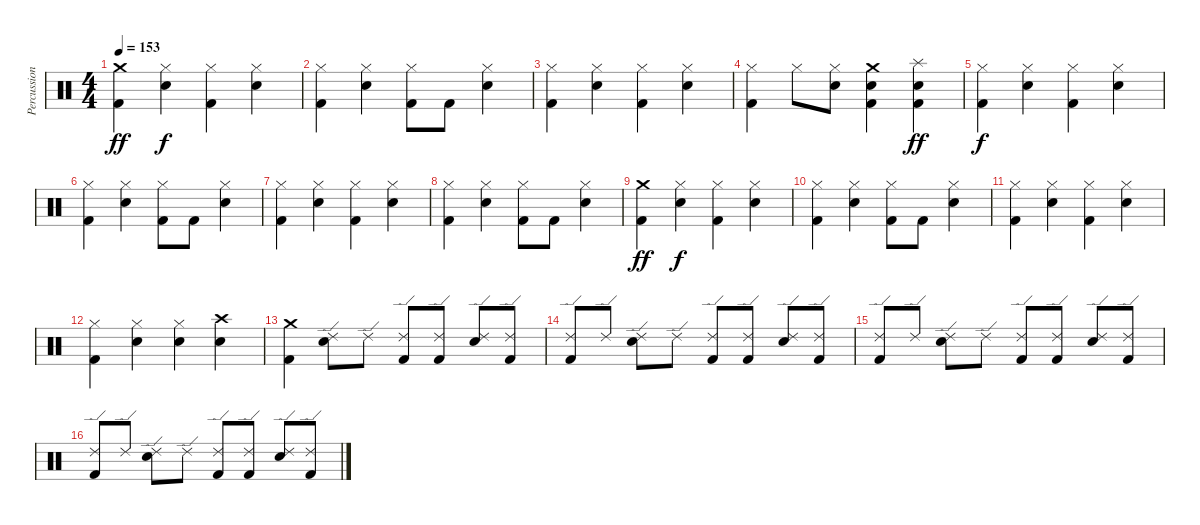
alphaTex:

\track ("Percussion" "Percussion") {instrument percussion}
\staff {score}
\articulation defaults
\ts (4 4)
\tempo 153
\clef neutral
\ks c
("Crash medium (hit)" "Kick (hit) 2").4{dy ff} ("Hi-Hat (closed)" "Electric Snare (hit)").4{dy f} ("Hi-Hat (closed)" "Kick (hit) 2").4 ("Hi-Hat (closed)" "Electric Snare (hit)").4 |
("Hi-Hat (closed)" "Kick (hit) 2").4 ("Hi-Hat (closed)" "Electric Snare (hit)").4 ("Hi-Hat (closed)" "Kick (hit) 2").8 "Kick (hit) 2".8 ("Hi-Hat (closed)" "Electric Snare (hit)").4 |
("Hi-Hat (closed)" "Kick (hit) 2").4 ("Hi-Hat (closed)" "Electric Snare (hit)").4 ("Hi-Hat (closed)" "Kick (hit) 2").4 ("Hi-Hat (closed)" "Electric Snare (hit)").4 |
("Hi-Hat (closed)" "Kick (hit) 2").4 "Hi-Hat (closed)".8 ("Hi-Hat (closed)" "Electric Snare (hit)").8 ("Crash medium (hit)" "Snare (hit) 2" "Kick (hit) 2").4 ("Splash (hit)" "Electric Snare (hit)" "Kick (hit) 2").4{dy ff} |
("Hi-Hat (closed)" "Kick (hit) 2").4{dy f} ("Hi-Hat (closed)" "Electric Snare (hit)").4 ("Hi-Hat (closed)" "Kick (hit) 2").4 ("Hi-Hat (closed)" "Electric Snare (hit)").4 |
("Hi-Hat (closed)" "Kick (hit) 2").4 ("Hi-Hat (closed)" "Electric Snare (hit)").4 ("Hi-Hat (closed)" "Kick (hit) 2").8 "Kick (hit) 2".8 ("Hi-Hat (closed)" "Electric Snare (hit)").4 |
("Hi-Hat (closed)" "Kick (hit) 2").4 ("Hi-Hat (closed)" "Electric Snare (hit)").4 ("Hi-Hat (closed)" "Kick (hit) 2").4 ("Hi-Hat (closed)" "Electric Snare (hit)").4 |
("Hi-Hat (closed)" "Kick (hit) 2").4 ("Hi-Hat (closed)" "Electric Snare (hit)").4 ("Hi-Hat (closed)" "Kick (hit) 2").8 "Kick (hit) 2".8 ("Hi-Hat (closed)" "Electric Snare (hit)").4 |
("Crash medium (hit)" "Kick (hit) 2").4{dy ff} ("Hi-Hat (closed)" "Electric Snare (hit)").4{dy f} ("Hi-Hat (closed)" "Kick (hit) 2").4 ("Hi-Hat (closed)" "Electric Snare (hit)").4 |
("Hi-Hat (closed)" "Kick (hit) 2").4 ("Hi-Hat (closed)" "Electric Snare (hit)").4 ("Hi-Hat (closed)" "Kick (hit) 2").8 "Kick (hit) 2".8 ("Hi-Hat (closed)" "Electric Snare (hit)").4 |
("Hi-Hat (closed)" "Kick (hit) 2").4 ("Hi-Hat (closed)" "Electric Snare (hit)").4 ("Hi-Hat (closed)" "Kick (hit) 2").4 ("Hi-Hat (closed)" "Electric Snare (hit)").4 |
("Hi-Hat (closed)" "Kick (hit) 2").4 ("Hi-Hat (closed)" "Electric Snare (hit)").4 ("Hi-Hat (closed)" "Snare (hit) 2").4 ("Crash high (hit)" "Electric Snare (hit)").4 |
("Crash medium (hit)" "Kick (hit) 2").4 ("Ride (edge) 2" "Electric Snare (hit)").8 "Ride (edge) 2".8 ("Ride (edge) 2" "Kick (hit) 2").8 ("Ride (edge) 2" "Kick (hit) 2").8 ("Ride (edge) 2" "Electric Snare (hit)").8 ("Ride (edge) 2" "Kick (hit) 2").8 |
("Ride (edge) 2" "Kick (hit) 2").8 "Ride (edge) 2".8 ("Ride (edge) 2" "Electric Snare (hit)").8 "Ride (edge) 2".8 ("Ride (edge) 2" "Kick (hit) 2").8 ("Ride (edge) 2" "Kick (hit) 2").8 ("Ride (edge) 2" "Electric Snare (hit)").8 ("Ride (edge) 2" "Kick (hit) 2").8 |
("Ride (edge) 2" "Kick (hit) 2").8 "Ride (edge) 2".8 ("Ride (edge) 2" "Electric Snare (hit)").8 "Ride (edge) 2".8 ("Ride (edge) 2" "Kick (hit) 2").8 ("Ride (edge) 2" "Kick (hit) 2").8 ("Ride (edge) 2" "Electric Snare (hit)").8 ("Ride (edge) 2" "Kick (hit) 2").8 |
("Ride (edge) 2" "Kick (hit) 2").8 "Ride (edge) 2".8 ("Ride (edge) 2" "Electric Snare (hit)").8 "Ride (edge) 2".8 ("Ride (edge) 2" "Kick (hit) 2").8 ("Ride (edge) 2" "Kick (hit) 2").8 ("Ride (edge) 2" "Electric Snare (hit)").8 ("Ride (edge) 2" "Kick (hit) 2").8
